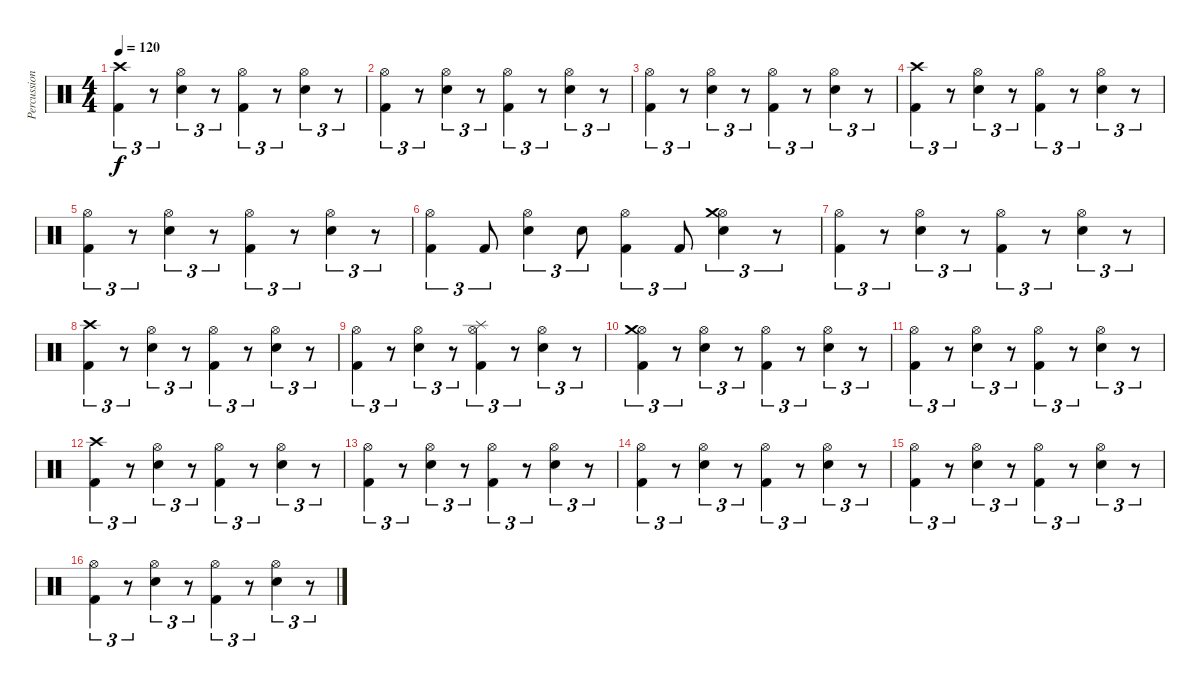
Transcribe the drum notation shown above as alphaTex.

\track ("Percussioni" "Percussion") {instrument percussion}
\staff {score}
\articulation defaults
\ts (4 4)
\tempo 120
\clef neutral
\ks c
("Kick (hit) 2" "Crash high (hit)").4{tu (3 2) dy f} r.8{tu (3 2)} ("Electric Snare (hit)" "Hi-Hat (open)").4{tu (3 2)} r.8{tu (3 2)} ("Kick (hit) 2" "Hi-Hat (open)").4{tu (3 2)} r.8{tu (3 2)} ("Electric Snare (hit)" "Hi-Hat (open)").4{tu (3 2)} r.8{tu (3 2)} |
("Kick (hit) 2" "Hi-Hat (open)").4{tu (3 2)} r.8{tu (3 2)} ("Electric Snare (hit)" "Hi-Hat (open)").4{tu (3 2)} r.8{tu (3 2)} ("Kick (hit) 2" "Hi-Hat (open)").4{tu (3 2)} r.8{tu (3 2)} ("Electric Snare (hit)" "Hi-Hat (open)").4{tu (3 2)} r.8{tu (3 2)} |
("Kick (hit) 2" "Hi-Hat (open)").4{tu (3 2)} r.8{tu (3 2)} ("Electric Snare (hit)" "Hi-Hat (open)").4{tu (3 2)} r.8{tu (3 2)} ("Kick (hit) 2" "Hi-Hat (open)").4{tu (3 2)} r.8{tu (3 2)} ("Electric Snare (hit)" "Hi-Hat (open)").4{tu (3 2)} r.8{tu (3 2)} |
("Kick (hit) 2" "Crash high (hit)").4{tu (3 2)} r.8{tu (3 2)} ("Electric Snare (hit)" "Hi-Hat (open)").4{tu (3 2)} r.8{tu (3 2)} ("Kick (hit) 2" "Hi-Hat (open)").4{tu (3 2)} r.8{tu (3 2)} ("Electric Snare (hit)" "Hi-Hat (open)").4{tu (3 2)} r.8{tu (3 2)} |
("Kick (hit) 2" "Hi-Hat (open)").4{tu (3 2)} r.8{tu (3 2)} ("Electric Snare (hit)" "Hi-Hat (open)").4{tu (3 2)} r.8{tu (3 2)} ("Kick (hit) 2" "Hi-Hat (open)").4{tu (3 2)} r.8{tu (3 2)} ("Electric Snare (hit)" "Hi-Hat (open)").4{tu (3 2)} r.8{tu (3 2)} |
("Kick (hit) 2" "Hi-Hat (open)").4{tu (3 2)} "Kick (hit) 2".8{tu (3 2)} ("Electric Snare (hit)" "Hi-Hat (open)").4{tu (3 2)} "Electric Snare (hit)".8{tu (3 2)} ("Kick (hit) 2" "Hi-Hat (open)").4{tu (3 2)} "Kick (hit) 2".8{tu (3 2)} ("Electric Snare (hit)" "Hi-Hat (open)" "Crash medium (hit)").4{tu (3 2)} r.8{tu (3 2)} |
("Kick (hit) 2" "Hi-Hat (open)").4{tu (3 2)} r.8{tu (3 2)} ("Electric Snare (hit)" "Hi-Hat (open)").4{tu (3 2)} r.8{tu (3 2)} ("Kick (hit) 2" "Hi-Hat (open)").4{tu (3 2)} r.8{tu (3 2)} ("Electric Snare (hit)" "Hi-Hat (open)").4{tu (3 2)} r.8{tu (3 2)} |
("Kick (hit) 2" "Crash high (hit)").4{tu (3 2)} r.8{tu (3 2)} ("Electric Snare (hit)" "Hi-Hat (open)").4{tu (3 2)} r.8{tu (3 2)} ("Kick (hit) 2" "Hi-Hat (open)").4{tu (3 2)} r.8{tu (3 2)} ("Electric Snare (hit)" "Hi-Hat (open)").4{tu (3 2)} r.8{tu (3 2)} |
("Kick (hit) 2" "Hi-Hat (open)").4{tu (3 2)} r.8{tu (3 2)} ("Electric Snare (hit)" "Hi-Hat (open)").4{tu (3 2)} r.8{tu (3 2)} ("Kick (hit) 2" "Hi-Hat (open)" "Splash (hit)").4{tu (3 2)} r.8{tu (3 2)} ("Electric Snare (hit)" "Hi-Hat (open)").4{tu (3 2)} r.8{tu (3 2)} |
("Kick (hit) 2" "Hi-Hat (open)" "Crash medium (hit)").4{tu (3 2)} r.8{tu (3 2)} ("Electric Snare (hit)" "Hi-Hat (open)").4{tu (3 2)} r.8{tu (3 2)} ("Kick (hit) 2" "Hi-Hat (open)").4{tu (3 2)} r.8{tu (3 2)} ("Electric Snare (hit)" "Hi-Hat (open)").4{tu (3 2)} r.8{tu (3 2)} |
("Kick (hit) 2" "Hi-Hat (open)").4{tu (3 2)} r.8{tu (3 2)} ("Electric Snare (hit)" "Hi-Hat (open)").4{tu (3 2)} r.8{tu (3 2)} ("Kick (hit) 2" "Hi-Hat (open)").4{tu (3 2)} r.8{tu (3 2)} ("Electric Snare (hit)" "Hi-Hat (open)").4{tu (3 2)} r.8{tu (3 2)} |
("Kick (hit) 2" "Crash high (hit)").4{tu (3 2)} r.8{tu (3 2)} ("Electric Snare (hit)" "Hi-Hat (open)").4{tu (3 2)} r.8{tu (3 2)} ("Kick (hit) 2" "Hi-Hat (open)").4{tu (3 2)} r.8{tu (3 2)} ("Electric Snare (hit)" "Hi-Hat (open)").4{tu (3 2)} r.8{tu (3 2)} |
("Kick (hit) 2" "Hi-Hat (open)").4{tu (3 2)} r.8{tu (3 2)} ("Electric Snare (hit)" "Hi-Hat (open)").4{tu (3 2)} r.8{tu (3 2)} ("Kick (hit) 2" "Hi-Hat (open)").4{tu (3 2)} r.8{tu (3 2)} ("Electric Snare (hit)" "Hi-Hat (open)").4{tu (3 2)} r.8{tu (3 2)} |
("Kick (hit) 2" "Hi-Hat (open)").4{tu (3 2)} r.8{tu (3 2)} ("Electric Snare (hit)" "Hi-Hat (open)").4{tu (3 2)} r.8{tu (3 2)} ("Kick (hit) 2" "Hi-Hat (open)").4{tu (3 2)} r.8{tu (3 2)} ("Electric Snare (hit)" "Hi-Hat (open)").4{tu (3 2)} r.8{tu (3 2)} |
("Kick (hit) 2" "Hi-Hat (open)").4{tu (3 2)} r.8{tu (3 2)} ("Electric Snare (hit)" "Hi-Hat (open)").4{tu (3 2)} r.8{tu (3 2)} ("Kick (hit) 2" "Hi-Hat (open)").4{tu (3 2)} r.8{tu (3 2)} ("Electric Snare (hit)" "Hi-Hat (open)").4{tu (3 2)} r.8{tu (3 2)} |
("Kick (hit) 2" "Hi-Hat (open)").4{tu (3 2)} r.8{tu (3 2)} ("Electric Snare (hit)" "Hi-Hat (open)").4{tu (3 2)} r.8{tu (3 2)} ("Kick (hit) 2" "Hi-Hat (open)").4{tu (3 2)} r.8{tu (3 2)} ("Electric Snare (hit)" "Hi-Hat (open)").4{tu (3 2)} r.8{tu (3 2)}
